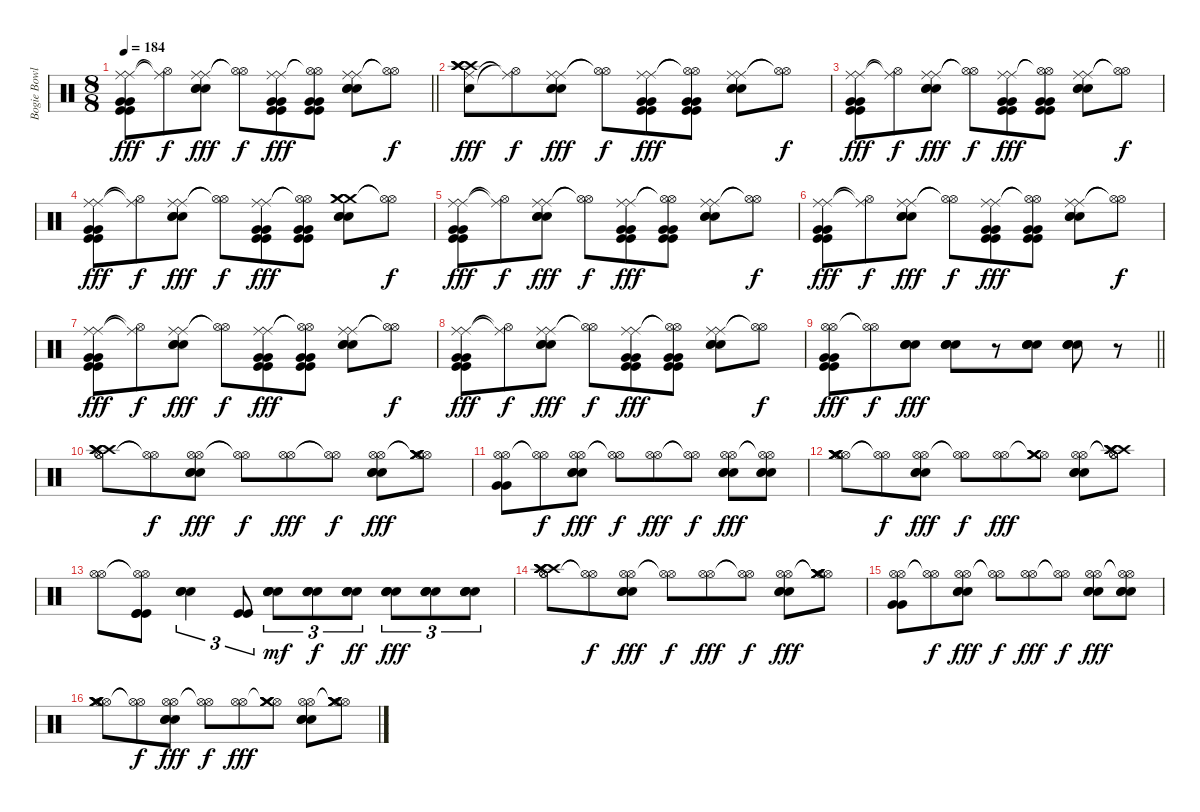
\track ("Bogie Bowles Drums" "Bogie Bowl") {instrument percussion}
\staff {score}
\articulation defaults
\ts (8 8)
\tempo 184
\clef neutral
\barLineRight lightlight
\ks c
("Ride (middle)" "Ride (middle)" "Kick (hit)" "Kick (hit)" "Very Low Tom (hit)" "Very Low Tom (hit)").8{dy fff} ("Hi-Hat (open)"{t} "Ride (middle)"{t}).8{dy f} ("Ride (middle)" "Ride (middle)" "Snare (hit) 2" "Snare (hit) 2" "Snare (hit) 2").8{dy fff} ("Hi-Hat (open)"{t} "Hi-Hat (open)"{t}).8{dy f} ("Ride (middle)" "Ride (middle)" "Kick (hit)" "Kick (hit)" "Very Low Tom (hit)" "Very Low Tom (hit)").8{dy fff} ("Hi-Hat (open)"{t} "Hi-Hat (open)"{t} "Kick (hit)" "Kick (hit)" "Very Low Tom (hit)" "Very Low Tom (hit)").8 ("Ride (middle)" "Ride (middle)" "Snare (hit) 2" "Snare (hit) 2" "Snare (hit) 2").8 ("Hi-Hat (open)"{t} "Hi-Hat (open)"{t}).8{dy f} |
("Snare (hit)" "Ride (middle)" "Crash high (hit)" "Crash high (hit)" "Crash high (hit)" "Crash high (hit)").8{dy fff} ("Hi-Hat (open)"{t} "Ride (middle)"{t}).8{dy f} ("Ride (middle)" "Ride (middle)" "Snare (hit) 2" "Snare (hit) 2" "Snare (hit) 2").8{dy fff} ("Hi-Hat (open)"{t} "Hi-Hat (open)"{t}).8{dy f} ("Ride (middle)" "Ride (middle)" "Kick (hit)" "Kick (hit)" "Very Low Tom (hit)" "Very Low Tom (hit)").8{dy fff} ("Hi-Hat (open)"{t} "Hi-Hat (open)"{t} "Kick (hit)" "Kick (hit)" "Very Low Tom (hit)" "Very Low Tom (hit)").8 ("Ride (middle)" "Ride (middle)" "Snare (hit) 2" "Snare (hit) 2" "Snare (hit) 2").8 ("Hi-Hat (open)"{t} "Hi-Hat (open)"{t}).8{dy f} |
("Ride (middle)" "Ride (middle)" "Kick (hit)" "Kick (hit)" "Very Low Tom (hit)" "Very Low Tom (hit)").8{dy fff} ("Hi-Hat (open)"{t} "Ride (middle)"{t}).8{dy f} ("Ride (middle)" "Ride (middle)" "Snare (hit) 2" "Snare (hit) 2" "Snare (hit) 2").8{dy fff} ("Hi-Hat (open)"{t} "Hi-Hat (open)"{t}).8{dy f} ("Ride (middle)" "Ride (middle)" "Kick (hit)" "Kick (hit)" "Very Low Tom (hit)" "Very Low Tom (hit)").8{dy fff} ("Hi-Hat (open)"{t} "Hi-Hat (open)"{t} "Kick (hit)" "Kick (hit)" "Very Low Tom (hit)" "Very Low Tom (hit)").8 ("Ride (middle)" "Ride (middle)" "Snare (hit) 2" "Snare (hit) 2" "Snare (hit) 2").8 ("Hi-Hat (open)"{t} "Hi-Hat (open)"{t}).8{dy f} |
("Ride (middle)" "Ride (middle)" "Kick (hit)" "Kick (hit)" "Very Low Tom (hit)" "Very Low Tom (hit)").8{dy fff} ("Hi-Hat (open)"{t} "Ride (middle)"{t}).8{dy f} ("Ride (middle)" "Ride (middle)" "Snare (hit) 2" "Snare (hit) 2" "Snare (hit) 2").8{dy fff} ("Hi-Hat (open)"{t} "Hi-Hat (open)"{t}).8{dy f} ("Ride (middle)" "Ride (middle)" "Kick (hit)" "Kick (hit)" "Very Low Tom (hit)" "Very Low Tom (hit)").8{dy fff} ("Hi-Hat (open)"{t} "Hi-Hat (open)"{t} "Kick (hit)" "Kick (hit)" "Very Low Tom (hit)" "Very Low Tom (hit)").8 ("Crash medium (hit)" "Crash medium (hit)" "Crash medium (hit)" "Snare (hit) 2" "Snare (hit) 2" "Snare (hit) 2").8 ("Hi-Hat (open)"{t} "Hi-Hat (open)"{t}).8{dy f} |
("Ride (middle)" "Ride (middle)" "Kick (hit)" "Kick (hit)" "Very Low Tom (hit)" "Very Low Tom (hit)").8{dy fff} ("Hi-Hat (open)"{t} "Ride (middle)"{t}).8{dy f} ("Ride (middle)" "Ride (middle)" "Snare (hit) 2" "Snare (hit) 2" "Snare (hit) 2").8{dy fff} ("Hi-Hat (open)"{t} "Hi-Hat (open)"{t}).8{dy f} ("Ride (middle)" "Ride (middle)" "Kick (hit)" "Kick (hit)" "Very Low Tom (hit)" "Very Low Tom (hit)").8{dy fff} ("Hi-Hat (open)"{t} "Hi-Hat (open)"{t} "Kick (hit)" "Kick (hit)" "Very Low Tom (hit)" "Very Low Tom (hit)").8 ("Ride (middle)" "Ride (middle)" "Snare (hit) 2" "Snare (hit) 2" "Snare (hit) 2").8 ("Hi-Hat (open)"{t} "Hi-Hat (open)"{t}).8{dy f} |
("Ride (middle)" "Ride (middle)" "Kick (hit)" "Kick (hit)" "Very Low Tom (hit)" "Very Low Tom (hit)").8{dy fff} ("Hi-Hat (open)"{t} "Ride (middle)"{t}).8{dy f} ("Ride (middle)" "Ride (middle)" "Snare (hit) 2" "Snare (hit) 2" "Snare (hit) 2").8{dy fff} ("Hi-Hat (open)"{t} "Hi-Hat (open)"{t}).8{dy f} ("Ride (middle)" "Ride (middle)" "Kick (hit)" "Kick (hit)" "Very Low Tom (hit)" "Very Low Tom (hit)").8{dy fff} ("Hi-Hat (open)"{t} "Hi-Hat (open)"{t} "Kick (hit)" "Kick (hit)" "Very Low Tom (hit)" "Very Low Tom (hit)").8 ("Ride (middle)" "Ride (middle)" "Snare (hit) 2" "Snare (hit) 2" "Snare (hit) 2").8 ("Hi-Hat (open)"{t} "Hi-Hat (open)"{t}).8{dy f} |
("Ride (middle)" "Ride (middle)" "Kick (hit)" "Kick (hit)" "Very Low Tom (hit)" "Very Low Tom (hit)").8{dy fff} ("Hi-Hat (open)"{t} "Ride (middle)"{t}).8{dy f} ("Ride (middle)" "Ride (middle)" "Snare (hit) 2" "Snare (hit) 2" "Snare (hit) 2").8{dy fff} ("Hi-Hat (open)"{t} "Hi-Hat (open)"{t}).8{dy f} ("Ride (middle)" "Ride (middle)" "Kick (hit)" "Kick (hit)" "Very Low Tom (hit)" "Very Low Tom (hit)").8{dy fff} ("Hi-Hat (open)"{t} "Hi-Hat (open)"{t} "Kick (hit)" "Kick (hit)" "Very Low Tom (hit)" "Very Low Tom (hit)").8 ("Ride (middle)" "Ride (middle)" "Snare (hit) 2" "Snare (hit) 2" "Snare (hit) 2").8 ("Hi-Hat (open)"{t} "Hi-Hat (open)"{t}).8{dy f} |
("Ride (middle)" "Ride (middle)" "Kick (hit)" "Kick (hit)" "Very Low Tom (hit)" "Very Low Tom (hit)").8{dy fff} ("Hi-Hat (open)"{t} "Ride (middle)"{t}).8{dy f} ("Ride (middle)" "Ride (middle)" "Snare (hit) 2" "Snare (hit) 2" "Snare (hit) 2").8{dy fff} ("Hi-Hat (open)"{t} "Hi-Hat (open)"{t}).8{dy f} ("Ride (middle)" "Ride (middle)" "Kick (hit)" "Kick (hit)" "Very Low Tom (hit)" "Very Low Tom (hit)").8{dy fff} ("Hi-Hat (open)"{t} "Hi-Hat (open)"{t} "Kick (hit)" "Kick (hit)" "Very Low Tom (hit)" "Very Low Tom (hit)").8 ("Ride (middle)" "Ride (middle)" "Snare (hit) 2" "Snare (hit) 2" "Snare (hit) 2").8 ("Hi-Hat (open)"{t} "Hi-Hat (open)"{t}).8{dy f} |
\barLineRight lightlight
("Hi-Hat (open)" "Hi-Hat (open)" "Kick (hit)" "Kick (hit)" "Very Low Tom (hit)" "Very Low Tom (hit)").8{dy fff} ("Hi-Hat (open)"{t} "Hi-Hat (open)"{t}).8{dy f} ("Snare (hit) 2" "Snare (hit) 2" "Snare (hit) 2" "Snare (hit) 2").8{dy fff} ("Snare (hit) 2" "Snare (hit) 2" "Snare (hit) 2" "Snare (hit) 2").8 r.8 ("Snare (hit) 2" "Snare (hit) 2" "Snare (hit) 2" "Snare (hit) 2").8 ("Snare (hit) 2" "Snare (hit) 2" "Snare (hit) 2" "Snare (hit) 2").8 r.8 |
("Hi-Hat (open)" "Hi-Hat (open)" "Crash high (hit)" "Crash high (hit)" "Crash high (hit)" "Crash high (hit)").8 ("Hi-Hat (open)"{t} "Hi-Hat (open)"{t}).8{dy f} ("Hi-Hat (open)" "Hi-Hat (open)" "Snare (hit) 2" "Snare (hit) 2" "Snare (hit) 2").8{dy fff} ("Hi-Hat (open)"{t} "Hi-Hat (open)"{t}).8{dy f} ("Hi-Hat (open)" "Hi-Hat (open)").8{dy fff} ("Hi-Hat (open)"{t} "Hi-Hat (open)"{t}).8{dy f} ("Hi-Hat (open)" "Hi-Hat (open)" "Snare (hit) 2" "Snare (hit) 2" "Snare (hit) 2").8{dy fff} ("Hi-Hat (open)"{t} "Hi-Hat (open)"{t} "Crash medium (hit)" "Crash medium (hit)" "Crash medium (hit)").8 |
("Hi-Hat (open)" "Hi-Hat (open)" "Very Low Tom (hit)" "Very Low Tom (hit)").8 ("Hi-Hat (open)"{t} "Hi-Hat (open)"{t}).8{dy f} ("Hi-Hat (open)" "Hi-Hat (open)" "Snare (hit) 2" "Snare (hit) 2" "Snare (hit) 2").8{dy fff} ("Hi-Hat (open)"{t} "Hi-Hat (open)"{t}).8{dy f} ("Hi-Hat (open)" "Hi-Hat (open)").8{dy fff} ("Hi-Hat (open)"{t} "Hi-Hat (open)"{t}).8{dy f} ("Hi-Hat (open)" "Hi-Hat (open)" "Snare (hit) 2" "Snare (hit) 2" "Snare (hit) 2").8{dy fff} ("Hi-Hat (open)"{t} "Hi-Hat (open)"{t} "Snare (hit) 2" "Snare (hit) 2" "Snare (hit) 2").8 |
("Hi-Hat (open)" "Hi-Hat (open)" "Crash medium (hit)" "Crash medium (hit)" "Crash medium (hit)" "Crash medium (hit)").8 ("Hi-Hat (open)"{t} "Hi-Hat (open)"{t}).8{dy f} ("Hi-Hat (open)" "Hi-Hat (open)" "Snare (hit) 2" "Snare (hit) 2" "Snare (hit) 2").8{dy fff} ("Hi-Hat (open)"{t} "Hi-Hat (open)"{t}).8{dy f} ("Hi-Hat (open)" "Hi-Hat (open)").8{dy fff} ("Hi-Hat (open)"{t} "Crash medium (hit)" "Crash medium (hit)" "Crash medium (hit)").8 ("Hi-Hat (open)" "Hi-Hat (open)" "Snare (hit) 2" "Snare (hit) 2" "Snare (hit) 2").8 ("Hi-Hat (open)"{t} "Hi-Hat (open)"{t} "Crash high (hit)" "Crash high (hit)" "Crash high (hit)" "Crash high (hit)").8 |
("Hi-Hat (open)" "Hi-Hat (open)").8 ("Hi-Hat (open)"{t} "Hi-Hat (open)"{t} "Kick (hit)" "Kick (hit)" "Kick (hit)").8 ("Snare (hit) 2" "Snare (hit) 2" "Snare (hit) 2").4{tu (3 2)} ("Kick (hit)" "Kick (hit)").8{tu (3 2)} ("Snare (hit) 2" "Snare (hit) 2" "Snare (hit) 2" "Snare (hit) 2").8{tu (3 2) dy mf} ("Snare (hit) 2" "Snare (hit) 2" "Snare (hit) 2" "Snare (hit) 2").8{tu (3 2) dy f} ("Snare (hit) 2" "Snare (hit) 2" "Snare (hit) 2" "Snare (hit) 2").8{tu (3 2) dy ff} ("Snare (hit) 2" "Snare (hit) 2" "Snare (hit) 2" "Snare (hit) 2").8{tu (3 2) dy fff} ("Snare (hit) 2" "Snare (hit) 2" "Snare (hit) 2" "Snare (hit) 2").8{tu (3 2)} ("Snare (hit) 2" "Snare (hit) 2" "Snare (hit) 2" "Snare (hit) 2").8{tu (3 2)} |
("Hi-Hat (open)" "Hi-Hat (open)" "Crash high (hit)" "Crash high (hit)" "Crash high (hit)" "Crash high (hit)").8 ("Hi-Hat (open)"{t} "Hi-Hat (open)"{t}).8{dy f} ("Hi-Hat (open)" "Hi-Hat (open)" "Snare (hit) 2" "Snare (hit) 2" "Snare (hit) 2").8{dy fff} ("Hi-Hat (open)"{t} "Hi-Hat (open)"{t}).8{dy f} ("Hi-Hat (open)" "Hi-Hat (open)").8{dy fff} ("Hi-Hat (open)"{t} "Hi-Hat (open)"{t}).8{dy f} ("Hi-Hat (open)" "Hi-Hat (open)" "Snare (hit) 2" "Snare (hit) 2" "Snare (hit) 2").8{dy fff} ("Hi-Hat (open)"{t} "Hi-Hat (open)"{t} "Crash medium (hit)" "Crash medium (hit)" "Crash medium (hit)").8 |
("Hi-Hat (open)" "Hi-Hat (open)" "Very Low Tom (hit)" "Very Low Tom (hit)").8 ("Hi-Hat (open)"{t} "Hi-Hat (open)"{t}).8{dy f} ("Hi-Hat (open)" "Hi-Hat (open)" "Snare (hit) 2" "Snare (hit) 2" "Snare (hit) 2").8{dy fff} ("Hi-Hat (open)"{t} "Hi-Hat (open)"{t}).8{dy f} ("Hi-Hat (open)" "Hi-Hat (open)").8{dy fff} ("Hi-Hat (open)"{t} "Hi-Hat (open)"{t}).8{dy f} ("Hi-Hat (open)" "Hi-Hat (open)" "Snare (hit) 2" "Snare (hit) 2" "Snare (hit) 2").8{dy fff} ("Hi-Hat (open)"{t} "Hi-Hat (open)"{t} "Snare (hit) 2" "Snare (hit) 2" "Snare (hit) 2").8 |
("Hi-Hat (open)" "Hi-Hat (open)" "Crash medium (hit)" "Crash medium (hit)" "Crash medium (hit)" "Crash medium (hit)").8 ("Hi-Hat (open)"{t} "Hi-Hat (open)"{t}).8{dy f} ("Hi-Hat (open)" "Hi-Hat (open)" "Snare (hit) 2" "Snare (hit) 2" "Snare (hit) 2").8{dy fff} ("Hi-Hat (open)"{t} "Hi-Hat (open)"{t}).8{dy f} ("Hi-Hat (open)" "Hi-Hat (open)").8{dy fff} ("Hi-Hat (open)"{t} "Crash medium (hit)" "Crash medium (hit)" "Crash medium (hit)").8 ("Hi-Hat (open)" "Hi-Hat (open)" "Snare (hit) 2" "Snare (hit) 2" "Snare (hit) 2").8 ("Hi-Hat (open)"{t} "Hi-Hat (open)"{t} "Crash medium (hit)" "Crash medium (hit)" "Crash medium (hit)").8
